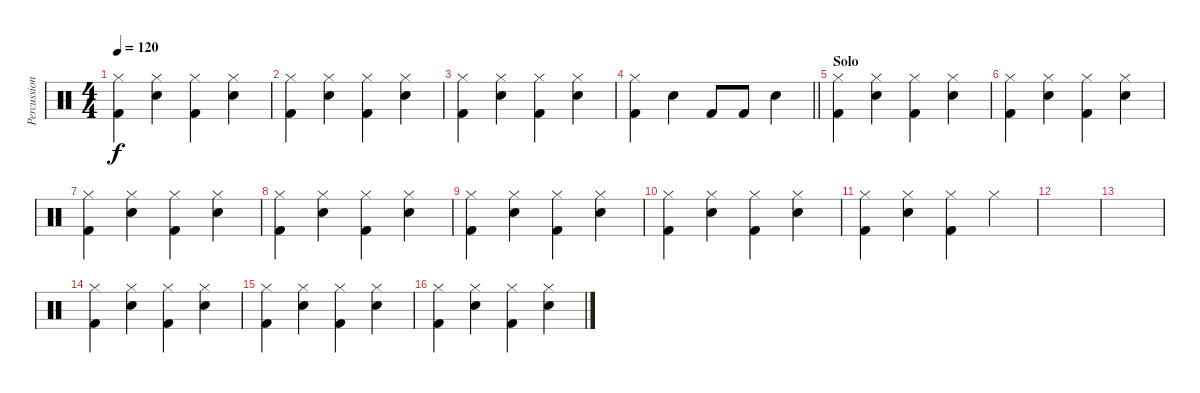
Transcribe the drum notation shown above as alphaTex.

\track ("Percussion" "Percussion") {instrument percussion}
\staff {score}
\articulation defaults
\ts (4 4)
\tempo 120
\clef neutral
\ks c
("Hi-Hat (closed)" "Kick (hit) 2").4{dy f} ("Hi-Hat (closed)" "Electric Snare (hit)").4 ("Hi-Hat (closed)" "Kick (hit) 2").4 ("Hi-Hat (closed)" "Electric Snare (hit)").4 |
("Hi-Hat (closed)" "Kick (hit) 2").4 ("Hi-Hat (closed)" "Electric Snare (hit)").4 ("Hi-Hat (closed)" "Kick (hit) 2").4 ("Hi-Hat (closed)" "Electric Snare (hit)").4 |
("Hi-Hat (closed)" "Kick (hit) 2").4 ("Hi-Hat (closed)" "Electric Snare (hit)").4 ("Hi-Hat (closed)" "Kick (hit) 2").4 ("Hi-Hat (closed)" "Electric Snare (hit)").4 |
\barLineRight lightlight
("Hi-Hat (closed)" "Kick (hit) 2").4 "Electric Snare (hit)".4 "Kick (hit) 2".8 "Kick (hit) 2".8 "Electric Snare (hit)".4 |
\section ("" "Solo")
("Hi-Hat (closed)" "Kick (hit) 2").4 ("Hi-Hat (closed)" "Electric Snare (hit)").4 ("Hi-Hat (closed)" "Kick (hit) 2").4 ("Hi-Hat (closed)" "Electric Snare (hit)").4 |
("Hi-Hat (closed)" "Kick (hit) 2").4 ("Hi-Hat (closed)" "Electric Snare (hit)").4 ("Hi-Hat (closed)" "Kick (hit) 2").4 ("Hi-Hat (closed)" "Electric Snare (hit)").4 |
("Hi-Hat (closed)" "Kick (hit) 2").4 ("Hi-Hat (closed)" "Electric Snare (hit)").4 ("Hi-Hat (closed)" "Kick (hit) 2").4 ("Hi-Hat (closed)" "Electric Snare (hit)").4 |
("Hi-Hat (closed)" "Kick (hit) 2").4 ("Hi-Hat (closed)" "Electric Snare (hit)").4 ("Hi-Hat (closed)" "Kick (hit) 2").4 ("Hi-Hat (closed)" "Electric Snare (hit)").4 |
("Hi-Hat (closed)" "Kick (hit) 2").4 ("Hi-Hat (closed)" "Electric Snare (hit)").4 ("Hi-Hat (closed)" "Kick (hit) 2").4 ("Hi-Hat (closed)" "Electric Snare (hit)").4 |
("Hi-Hat (closed)" "Kick (hit) 2").4 ("Hi-Hat (closed)" "Electric Snare (hit)").4 ("Hi-Hat (closed)" "Kick (hit) 2").4 ("Hi-Hat (closed)" "Electric Snare (hit)").4 |
("Hi-Hat (closed)" "Kick (hit) 2").4 ("Hi-Hat (closed)" "Electric Snare (hit)").4 ("Hi-Hat (closed)" "Kick (hit) 2").4 "Hi-Hat (closed)".4 |
|
|
("Hi-Hat (closed)" "Kick (hit) 2").4 ("Hi-Hat (closed)" "Electric Snare (hit)").4 ("Hi-Hat (closed)" "Kick (hit) 2").4 ("Hi-Hat (closed)" "Electric Snare (hit)").4 |
("Hi-Hat (closed)" "Kick (hit) 2").4 ("Hi-Hat (closed)" "Electric Snare (hit)").4 ("Hi-Hat (closed)" "Kick (hit) 2").4 ("Hi-Hat (closed)" "Electric Snare (hit)").4 |
("Hi-Hat (closed)" "Kick (hit) 2").4 ("Hi-Hat (closed)" "Electric Snare (hit)").4 ("Hi-Hat (closed)" "Kick (hit) 2").4 ("Hi-Hat (closed)" "Electric Snare (hit)").4
